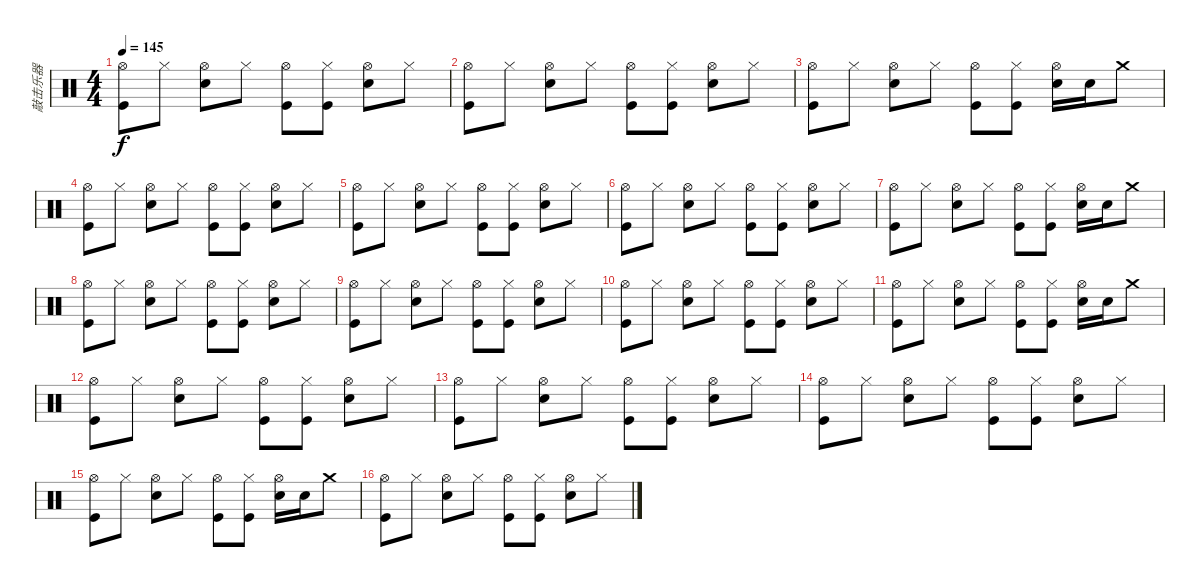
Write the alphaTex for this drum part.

\track ("敲击乐器" "敲击乐器") {instrument percussion}
\staff {score}
\articulation defaults
\ts (4 4)
\tempo 145
\clef neutral
\ks c
("Hi-Hat (open)" "Kick (hit)").8{dy f} "Hi-Hat (closed)".8 ("Hi-Hat (open)" "Snare (hit) 2").8 "Hi-Hat (closed)".8 ("Hi-Hat (open)" "Kick (hit)").8 ("Hi-Hat (closed)" "Kick (hit)").8 ("Hi-Hat (open)" "Snare (hit) 2").8 "Hi-Hat (closed)".8 |
("Hi-Hat (open)" "Kick (hit)").8 "Hi-Hat (closed)".8 ("Hi-Hat (open)" "Snare (hit) 2").8 "Hi-Hat (closed)".8 ("Hi-Hat (open)" "Kick (hit)").8 ("Hi-Hat (closed)" "Kick (hit)").8 ("Hi-Hat (open)" "Snare (hit) 2").8 "Hi-Hat (closed)".8 |
("Hi-Hat (open)" "Kick (hit)").8 "Hi-Hat (closed)".8 ("Hi-Hat (open)" "Snare (hit) 2").8 "Hi-Hat (closed)".8 ("Hi-Hat (open)" "Kick (hit)").8 ("Hi-Hat (closed)" "Kick (hit)").8 ("Hi-Hat (open)" "Snare (hit) 2").16 "Snare (hit) 2".16 "Crash medium (hit)".8 |
("Hi-Hat (open)" "Kick (hit)").8 "Hi-Hat (closed)".8 ("Hi-Hat (open)" "Snare (hit) 2").8 "Hi-Hat (closed)".8 ("Hi-Hat (open)" "Kick (hit)").8 ("Hi-Hat (closed)" "Kick (hit)").8 ("Hi-Hat (open)" "Snare (hit) 2").8 "Hi-Hat (closed)".8 |
("Hi-Hat (open)" "Kick (hit)").8 "Hi-Hat (closed)".8 ("Hi-Hat (open)" "Snare (hit) 2").8 "Hi-Hat (closed)".8 ("Hi-Hat (open)" "Kick (hit)").8 ("Hi-Hat (closed)" "Kick (hit)").8 ("Hi-Hat (open)" "Snare (hit) 2").8 "Hi-Hat (closed)".8 |
("Hi-Hat (open)" "Kick (hit)").8 "Hi-Hat (closed)".8 ("Hi-Hat (open)" "Snare (hit) 2").8 "Hi-Hat (closed)".8 ("Hi-Hat (open)" "Kick (hit)").8 ("Hi-Hat (closed)" "Kick (hit)").8 ("Hi-Hat (open)" "Snare (hit) 2").8 "Hi-Hat (closed)".8 |
("Hi-Hat (open)" "Kick (hit)").8 "Hi-Hat (closed)".8 ("Hi-Hat (open)" "Snare (hit) 2").8 "Hi-Hat (closed)".8 ("Hi-Hat (open)" "Kick (hit)").8 ("Hi-Hat (closed)" "Kick (hit)").8 ("Hi-Hat (open)" "Snare (hit) 2").16 "Snare (hit) 2".16 "Crash medium (hit)".8 |
("Hi-Hat (open)" "Kick (hit)").8 "Hi-Hat (closed)".8 ("Hi-Hat (open)" "Snare (hit) 2").8 "Hi-Hat (closed)".8 ("Hi-Hat (open)" "Kick (hit)").8 ("Hi-Hat (closed)" "Kick (hit)").8 ("Hi-Hat (open)" "Snare (hit) 2").8 "Hi-Hat (closed)".8 |
("Hi-Hat (open)" "Kick (hit)").8 "Hi-Hat (closed)".8 ("Hi-Hat (open)" "Snare (hit) 2").8 "Hi-Hat (closed)".8 ("Hi-Hat (open)" "Kick (hit)").8 ("Hi-Hat (closed)" "Kick (hit)").8 ("Hi-Hat (open)" "Snare (hit) 2").8 "Hi-Hat (closed)".8 |
("Hi-Hat (open)" "Kick (hit)").8 "Hi-Hat (closed)".8 ("Hi-Hat (open)" "Snare (hit) 2").8 "Hi-Hat (closed)".8 ("Hi-Hat (open)" "Kick (hit)").8 ("Hi-Hat (closed)" "Kick (hit)").8 ("Hi-Hat (open)" "Snare (hit) 2").8 "Hi-Hat (closed)".8 |
("Hi-Hat (open)" "Kick (hit)").8 "Hi-Hat (closed)".8 ("Hi-Hat (open)" "Snare (hit) 2").8 "Hi-Hat (closed)".8 ("Hi-Hat (open)" "Kick (hit)").8 ("Hi-Hat (closed)" "Kick (hit)").8 ("Hi-Hat (open)" "Snare (hit) 2").16 "Snare (hit) 2".16 "Crash medium (hit)".8 |
("Hi-Hat (open)" "Kick (hit)").8 "Hi-Hat (closed)".8 ("Hi-Hat (open)" "Snare (hit) 2").8 "Hi-Hat (closed)".8 ("Hi-Hat (open)" "Kick (hit)").8 ("Hi-Hat (closed)" "Kick (hit)").8 ("Hi-Hat (open)" "Snare (hit) 2").8 "Hi-Hat (closed)".8 |
("Hi-Hat (open)" "Kick (hit)").8 "Hi-Hat (closed)".8 ("Hi-Hat (open)" "Snare (hit) 2").8 "Hi-Hat (closed)".8 ("Hi-Hat (open)" "Kick (hit)").8 ("Hi-Hat (closed)" "Kick (hit)").8 ("Hi-Hat (open)" "Snare (hit) 2").8 "Hi-Hat (closed)".8 |
("Hi-Hat (open)" "Kick (hit)").8 "Hi-Hat (closed)".8 ("Hi-Hat (open)" "Snare (hit) 2").8 "Hi-Hat (closed)".8 ("Hi-Hat (open)" "Kick (hit)").8 ("Hi-Hat (closed)" "Kick (hit)").8 ("Hi-Hat (open)" "Snare (hit) 2").8 "Hi-Hat (closed)".8 |
("Hi-Hat (open)" "Kick (hit)").8 "Hi-Hat (closed)".8 ("Hi-Hat (open)" "Snare (hit) 2").8 "Hi-Hat (closed)".8 ("Hi-Hat (open)" "Kick (hit)").8 ("Hi-Hat (closed)" "Kick (hit)").8 ("Hi-Hat (open)" "Snare (hit) 2").16 "Snare (hit) 2".16 "Crash medium (hit)".8 |
("Hi-Hat (open)" "Kick (hit)").8 "Hi-Hat (closed)".8 ("Hi-Hat (open)" "Snare (hit) 2").8 "Hi-Hat (closed)".8 ("Hi-Hat (open)" "Kick (hit)").8 ("Hi-Hat (closed)" "Kick (hit)").8 ("Hi-Hat (open)" "Snare (hit) 2").8 "Hi-Hat (closed)".8
